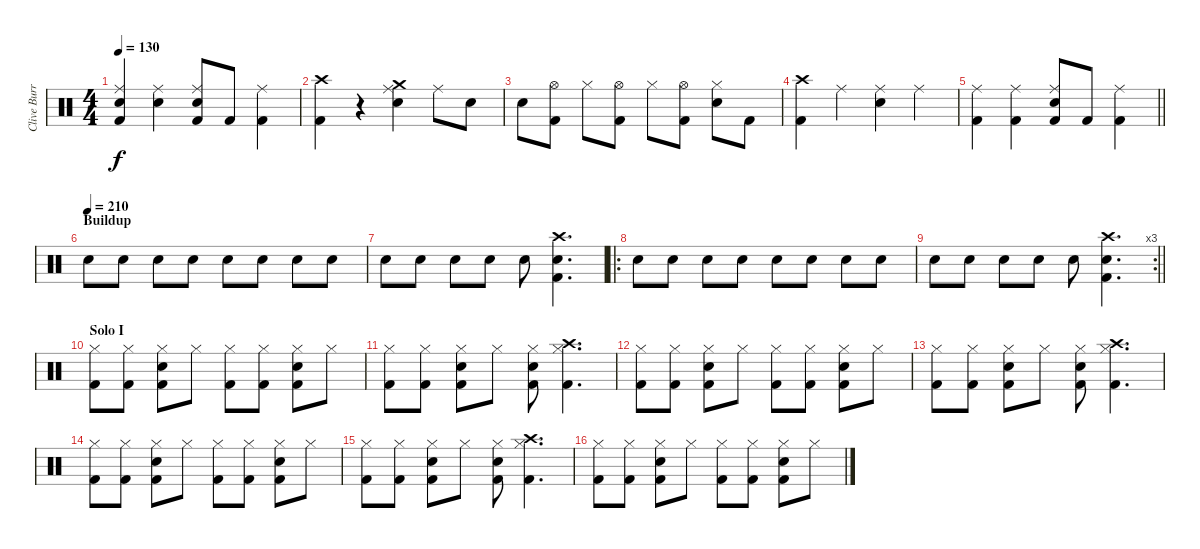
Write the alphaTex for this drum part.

\track ("Clive Burr" "Clive Burr") {instrument percussion}
\staff {score}
\articulation defaults
\ts (4 4)
\tempo 130
\clef neutral
\ks c
("Snare (hit) 2" "Ride (middle)" "Kick (hit) 2").4{dy f} ("Snare (hit) 2" "Ride (middle)").4 ("Snare (hit) 2" "Ride (middle)" "Kick (hit) 2").8 "Kick (hit) 2".8 ("Ride (middle)" "Kick (hit) 2").4 |
("Crash high (hit)" "Kick (hit) 2").4 r.4 ("Crash medium (hit)" "Snare (hit) 2" "Ride (middle)").4 "Ride (middle)".8 "Snare (hit) 2".8 |
"Snare (hit) 2".8 ("Hi-Hat (open)" "Kick (hit) 2").8 "Hi-Hat (closed)".8 ("Hi-Hat (open)" "Kick (hit) 2").8 "Hi-Hat (closed)".8 ("Hi-Hat (open)" "Kick (hit) 2").8 ("Snare (hit) 2" "Hi-Hat (closed)").8 "Kick (hit) 2".8 |
("Crash high (hit)" "Kick (hit) 2").4 "Ride (middle)".4 ("Snare (hit) 2" "Ride (middle)").4 "Ride (middle)".4 |
\barLineRight lightlight
("Ride (middle)" "Kick (hit) 2").4 ("Ride (middle)" "Kick (hit) 2").4 ("Snare (hit) 2" "Ride (middle)" "Kick (hit) 2").8 "Kick (hit) 2".8 ("Ride (middle)" "Kick (hit) 2").4 |
\section ("" "Buildup")
\tempo (210)
"Snare (hit) 2".8 "Snare (hit) 2".8 "Snare (hit) 2".8 "Snare (hit) 2".8 "Snare (hit) 2".8 "Snare (hit) 2".8 "Snare (hit) 2".8 "Snare (hit) 2".8 |
"Snare (hit) 2".8 "Snare (hit) 2".8 "Snare (hit) 2".8 "Snare (hit) 2".8 "Snare (hit) 2".8 ("Crash high (hit)" "Snare (hit) 2" "Kick (hit) 2").4{d} |
\ro "Snare (hit) 2".8 "Snare (hit) 2".8 "Snare (hit) 2".8 "Snare (hit) 2".8 "Snare (hit) 2".8 "Snare (hit) 2".8 "Snare (hit) 2".8 "Snare (hit) 2".8
|
\rc 3
\barLineRight lightlight "Snare (hit) 2".8 "Snare (hit) 2".8 "Snare (hit) 2".8 "Snare (hit) 2".8 "Snare (hit) 2".8
("Crash high (hit)" "Snare (hit) 2" "Kick (hit) 2").4{d} |
\section ("" "Solo I")
("Hi-Hat (closed)" "Kick (hit) 2").8 ("Hi-Hat (closed)" "Kick (hit) 2").8 ("Snare (hit) 2" "Hi-Hat (closed)" "Kick (hit) 2").8 "Hi-Hat (closed)".8 ("Hi-Hat (closed)" "Kick (hit) 2").8 ("Hi-Hat (closed)" "Kick (hit) 2").8 ("Snare (hit) 2" "Hi-Hat (closed)" "Kick (hit) 2").8 "Hi-Hat (closed)".8 |
("Hi-Hat (closed)" "Kick (hit) 2").8 ("Hi-Hat (closed)" "Kick (hit) 2").8 ("Snare (hit) 2" "Hi-Hat (closed)" "Kick (hit) 2").8 "Hi-Hat (closed)".8 ("Snare (hit) 2" "Hi-Hat (closed)" "Kick (hit) 2").8 ("Crash high (hit)" "Hi-Hat (closed)" "Kick (hit) 2").4{d} |
("Hi-Hat (closed)" "Kick (hit) 2").8 ("Hi-Hat (closed)" "Kick (hit) 2").8 ("Snare (hit) 2" "Hi-Hat (closed)" "Kick (hit) 2").8 "Hi-Hat (closed)".8 ("Hi-Hat (closed)" "Kick (hit) 2").8 ("Hi-Hat (closed)" "Kick (hit) 2").8 ("Snare (hit) 2" "Hi-Hat (closed)" "Kick (hit) 2").8 "Hi-Hat (closed)".8 |
("Hi-Hat (closed)" "Kick (hit) 2").8 ("Hi-Hat (closed)" "Kick (hit) 2").8 ("Snare (hit) 2" "Hi-Hat (closed)" "Kick (hit) 2").8 "Hi-Hat (closed)".8 ("Snare (hit) 2" "Hi-Hat (closed)" "Kick (hit) 2").8 ("Crash high (hit)" "Hi-Hat (closed)" "Kick (hit) 2").4{d} |
("Hi-Hat (closed)" "Kick (hit) 2").8 ("Hi-Hat (closed)" "Kick (hit) 2").8 ("Snare (hit) 2" "Hi-Hat (closed)" "Kick (hit) 2").8 "Hi-Hat (closed)".8 ("Hi-Hat (closed)" "Kick (hit) 2").8 ("Hi-Hat (closed)" "Kick (hit) 2").8 ("Snare (hit) 2" "Hi-Hat (closed)" "Kick (hit) 2").8 "Hi-Hat (closed)".8 |
("Hi-Hat (closed)" "Kick (hit) 2").8 ("Hi-Hat (closed)" "Kick (hit) 2").8 ("Snare (hit) 2" "Hi-Hat (closed)" "Kick (hit) 2").8 "Hi-Hat (closed)".8 ("Snare (hit) 2" "Hi-Hat (closed)" "Kick (hit) 2").8 ("Crash high (hit)" "Hi-Hat (closed)" "Kick (hit) 2").4{d} |
("Hi-Hat (closed)" "Kick (hit) 2").8 ("Hi-Hat (closed)" "Kick (hit) 2").8 ("Snare (hit) 2" "Hi-Hat (closed)" "Kick (hit) 2").8 "Hi-Hat (closed)".8 ("Hi-Hat (closed)" "Kick (hit) 2").8 ("Hi-Hat (closed)" "Kick (hit) 2").8 ("Snare (hit) 2" "Hi-Hat (closed)" "Kick (hit) 2").8 "Hi-Hat (closed)".8
